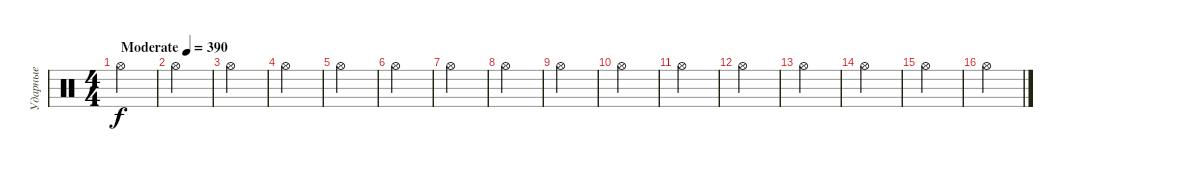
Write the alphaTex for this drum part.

\track ("Ударные" "Ударные") {instrument percussion}
\staff {score}
\articulation defaults
\ts (4 4)
\tempo (390 "Moderate")
\clef neutral
\ks c "Hi-Hat (open)".4{dy f}
|
"Hi-Hat (open)".4 |
"Hi-Hat (open)".4 |
"Hi-Hat (open)".4 |
"Hi-Hat (open)".4 |
"Hi-Hat (open)".4 |
"Hi-Hat (open)".4 |
"Hi-Hat (open)".4 |
"Hi-Hat (open)".4 |
"Hi-Hat (open)".4 |
"Hi-Hat (open)".4 |
"Hi-Hat (open)".4 |
"Hi-Hat (open)".4 |
"Hi-Hat (open)".4 |
"Hi-Hat (open)".4 |
"Hi-Hat (open)".4
